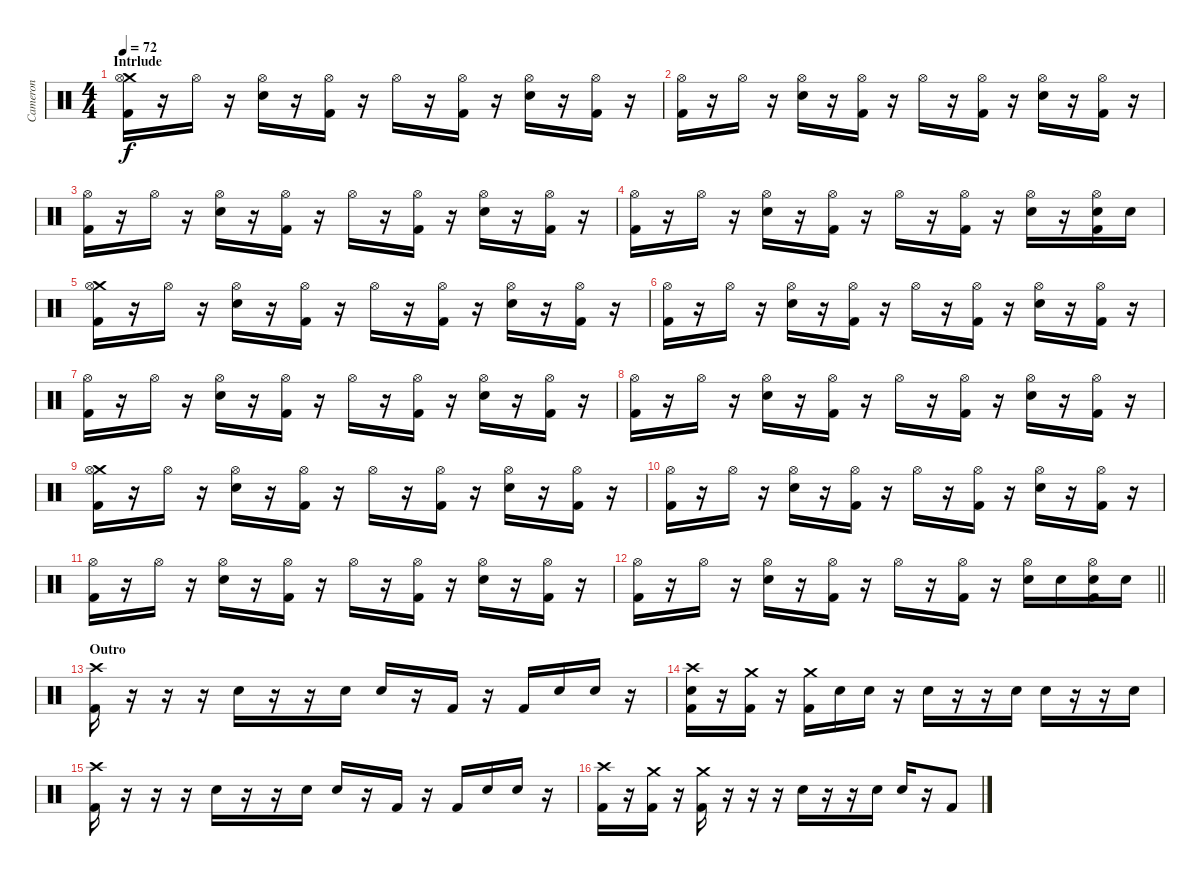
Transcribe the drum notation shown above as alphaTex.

\track ("Cameron" "Cameron") {instrument percussion}
\staff {score}
\articulation defaults
\ts (4 4)
\section ("" "Intrlude")
\tempo 72
\clef neutral
\ks c
("Crash medium (hit)" "Hi-Hat (open)" "Kick (hit) 2").16{dy f} r.16 "Hi-Hat (open)".16 r.16 ("Hi-Hat (open)" "Electric Snare (hit)").16 r.16 ("Hi-Hat (open)" "Kick (hit) 2").16 r.16 "Hi-Hat (open)".16 r.16 ("Hi-Hat (open)" "Kick (hit) 2").16 r.16 ("Hi-Hat (open)" "Electric Snare (hit)").16 r.16 ("Hi-Hat (open)" "Kick (hit) 2").16 r.16 |
("Hi-Hat (open)" "Kick (hit) 2").16 r.16 "Hi-Hat (open)".16 r.16 ("Hi-Hat (open)" "Electric Snare (hit)").16 r.16 ("Hi-Hat (open)" "Kick (hit) 2").16 r.16 "Hi-Hat (open)".16 r.16 ("Hi-Hat (open)" "Kick (hit) 2").16 r.16 ("Hi-Hat (open)" "Electric Snare (hit)").16 r.16 ("Hi-Hat (open)" "Kick (hit) 2").16 r.16 |
("Hi-Hat (open)" "Kick (hit) 2").16 r.16 "Hi-Hat (open)".16 r.16 ("Hi-Hat (open)" "Electric Snare (hit)").16 r.16 ("Hi-Hat (open)" "Kick (hit) 2").16 r.16 "Hi-Hat (open)".16 r.16 ("Hi-Hat (open)" "Kick (hit) 2").16 r.16 ("Hi-Hat (open)" "Electric Snare (hit)").16 r.16 ("Hi-Hat (open)" "Kick (hit) 2").16 r.16 |
("Hi-Hat (open)" "Kick (hit) 2").16 r.16 "Hi-Hat (open)".16 r.16 ("Hi-Hat (open)" "Electric Snare (hit)").16 r.16 ("Hi-Hat (open)" "Kick (hit) 2").16 r.16 "Hi-Hat (open)".16 r.16 ("Hi-Hat (open)" "Kick (hit) 2").16 r.16 ("Hi-Hat (open)" "Electric Snare (hit)").16 r.16 ("Hi-Hat (open)" "Electric Snare (hit)" "Kick (hit) 2").16 "Electric Snare (hit)".16 |
("Crash medium (hit)" "Hi-Hat (open)" "Kick (hit) 2").16 r.16 "Hi-Hat (open)".16 r.16 ("Hi-Hat (open)" "Electric Snare (hit)").16 r.16 ("Hi-Hat (open)" "Kick (hit) 2").16 r.16 "Hi-Hat (open)".16 r.16 ("Hi-Hat (open)" "Kick (hit) 2").16 r.16 ("Hi-Hat (open)" "Electric Snare (hit)").16 r.16 ("Hi-Hat (open)" "Kick (hit) 2").16 r.16 |
("Hi-Hat (open)" "Kick (hit) 2").16 r.16 "Hi-Hat (open)".16 r.16 ("Hi-Hat (open)" "Electric Snare (hit)").16 r.16 ("Hi-Hat (open)" "Kick (hit) 2").16 r.16 "Hi-Hat (open)".16 r.16 ("Hi-Hat (open)" "Kick (hit) 2").16 r.16 ("Hi-Hat (open)" "Electric Snare (hit)").16 r.16 ("Hi-Hat (open)" "Kick (hit) 2").16 r.16 |
("Hi-Hat (open)" "Kick (hit) 2").16 r.16 "Hi-Hat (open)".16 r.16 ("Hi-Hat (open)" "Electric Snare (hit)").16 r.16 ("Hi-Hat (open)" "Kick (hit) 2").16 r.16 "Hi-Hat (open)".16 r.16 ("Hi-Hat (open)" "Kick (hit) 2").16 r.16 ("Hi-Hat (open)" "Electric Snare (hit)").16 r.16 ("Hi-Hat (open)" "Kick (hit) 2").16 r.16 |
("Hi-Hat (open)" "Kick (hit) 2").16 r.16 "Hi-Hat (open)".16 r.16 ("Hi-Hat (open)" "Electric Snare (hit)").16 r.16 ("Hi-Hat (open)" "Kick (hit) 2").16 r.16 "Hi-Hat (open)".16 r.16 ("Hi-Hat (open)" "Kick (hit) 2").16 r.16 ("Hi-Hat (open)" "Electric Snare (hit)").16 r.16 ("Hi-Hat (open)" "Kick (hit) 2").16 r.16 |
("Crash medium (hit)" "Hi-Hat (open)" "Kick (hit) 2").16 r.16 "Hi-Hat (open)".16 r.16 ("Hi-Hat (open)" "Electric Snare (hit)").16 r.16 ("Hi-Hat (open)" "Kick (hit) 2").16 r.16 "Hi-Hat (open)".16 r.16 ("Hi-Hat (open)" "Kick (hit) 2").16 r.16 ("Hi-Hat (open)" "Electric Snare (hit)").16 r.16 ("Hi-Hat (open)" "Kick (hit) 2").16 r.16 |
("Hi-Hat (open)" "Kick (hit) 2").16 r.16 "Hi-Hat (open)".16 r.16 ("Hi-Hat (open)" "Electric Snare (hit)").16 r.16 ("Hi-Hat (open)" "Kick (hit) 2").16 r.16 "Hi-Hat (open)".16 r.16 ("Hi-Hat (open)" "Kick (hit) 2").16 r.16 ("Hi-Hat (open)" "Electric Snare (hit)").16 r.16 ("Hi-Hat (open)" "Kick (hit) 2").16 r.16 |
("Hi-Hat (open)" "Kick (hit) 2").16 r.16 "Hi-Hat (open)".16 r.16 ("Hi-Hat (open)" "Electric Snare (hit)").16 r.16 ("Hi-Hat (open)" "Kick (hit) 2").16 r.16 "Hi-Hat (open)".16 r.16 ("Hi-Hat (open)" "Kick (hit) 2").16 r.16 ("Hi-Hat (open)" "Electric Snare (hit)").16 r.16 ("Hi-Hat (open)" "Kick (hit) 2").16 r.16 |
\barLineRight lightlight
("Hi-Hat (open)" "Kick (hit) 2").16 r.16 "Hi-Hat (open)".16 r.16 ("Hi-Hat (open)" "Electric Snare (hit)").16 r.16 ("Hi-Hat (open)" "Kick (hit) 2").16 r.16 "Hi-Hat (open)".16 r.16 ("Hi-Hat (open)" "Kick (hit) 2").16 r.16 ("Hi-Hat (open)" "Electric Snare (hit)").16 "Electric Snare (hit)".16 ("Hi-Hat (open)" "Electric Snare (hit)" "Kick (hit) 2").16 "Electric Snare (hit)".16 |
\section ("" "Outro")
("Crash high (hit)" "Kick (hit) 2").16 r.16 r.16 r.16 "Electric Snare (hit)".16 r.16 r.16 "Electric Snare (hit)".16 "Electric Snare (hit)".16 r.16 "Kick (hit) 2".16 r.16 "Kick (hit) 2".16 "Electric Snare (hit)".16 "Electric Snare (hit)".16 r.16 |
("Crash high (hit)" "Electric Snare (hit)" "Kick (hit) 2").16 r.16 ("Crash medium (hit)" "Kick (hit) 2").16 r.16 ("Crash medium (hit)" "Kick (hit) 2").16 "Electric Snare (hit)".16 "Electric Snare (hit)".16 r.16 "Electric Snare (hit)".16 r.16 r.16 "Electric Snare (hit)".16 "Electric Snare (hit)".16 r.16 r.16 "Electric Snare (hit)".16 |
("Crash high (hit)" "Kick (hit) 2").16 r.16 r.16 r.16 "Electric Snare (hit)".16 r.16 r.16 "Electric Snare (hit)".16 "Electric Snare (hit)".16 r.16 "Kick (hit) 2".16 r.16 "Kick (hit) 2".16 "Electric Snare (hit)".16 "Electric Snare (hit)".16 r.16 |
("Crash high (hit)" "Kick (hit) 2").16 r.16 ("Crash medium (hit)" "Kick (hit) 2").16 r.16 ("Crash medium (hit)" "Kick (hit) 2").16 r.16 r.16 r.16 "Electric Snare (hit)".16 r.16 r.16 "Electric Snare (hit)".16 "Electric Snare (hit)".16 r.16 "Kick (hit) 2".8
